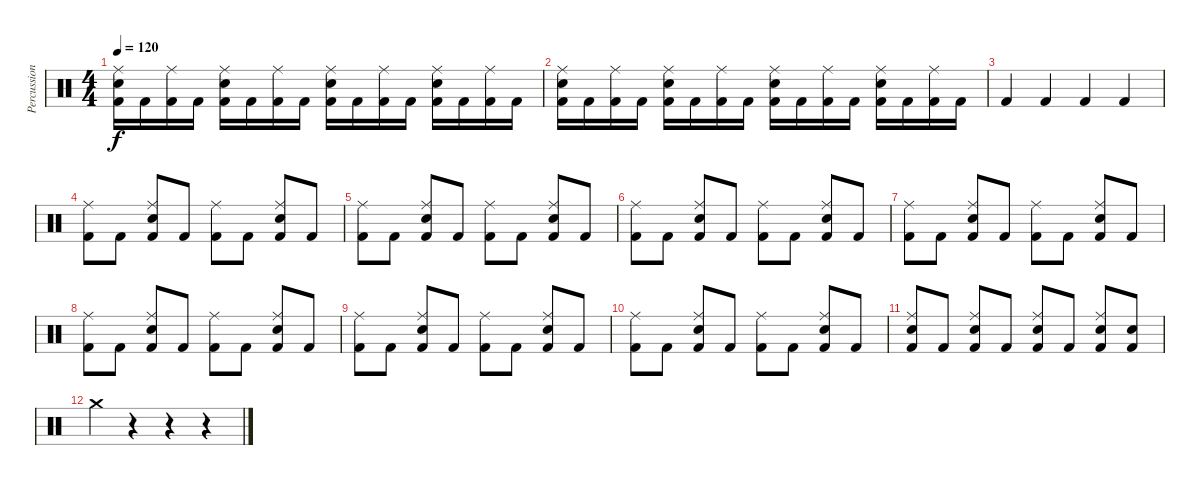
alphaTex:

\track ("Percussions" "Percussion") {instrument percussion}
\staff {score}
\articulation defaults
\ts (4 4)
\tempo 120
\clef neutral
\ks c
("Electric Snare (hit)" "Ride (middle)" "Kick (hit) 2").16{dy f} "Kick (hit) 2".16 ("Ride (middle)" "Kick (hit) 2").16 "Kick (hit) 2".16 ("Electric Snare (hit)" "Ride (middle)" "Kick (hit) 2").16 "Kick (hit) 2".16 ("Ride (middle)" "Kick (hit) 2").16 "Kick (hit) 2".16 ("Electric Snare (hit)" "Ride (middle)" "Kick (hit) 2").16 "Kick (hit) 2".16 ("Ride (middle)" "Kick (hit) 2").16 "Kick (hit) 2".16 ("Electric Snare (hit)" "Ride (middle)" "Kick (hit) 2").16 "Kick (hit) 2".16 ("Ride (middle)" "Kick (hit) 2").16 "Kick (hit) 2".16 |
("Electric Snare (hit)" "Ride (middle)" "Kick (hit) 2").16 "Kick (hit) 2".16 ("Ride (middle)" "Kick (hit) 2").16 "Kick (hit) 2".16 ("Electric Snare (hit)" "Ride (middle)" "Kick (hit) 2").16 "Kick (hit) 2".16 ("Ride (middle)" "Kick (hit) 2").16 "Kick (hit) 2".16 ("Electric Snare (hit)" "Ride (middle)" "Kick (hit) 2").16 "Kick (hit) 2".16 ("Ride (middle)" "Kick (hit) 2").16 "Kick (hit) 2".16 ("Electric Snare (hit)" "Ride (middle)" "Kick (hit) 2").16 "Kick (hit) 2".16 ("Ride (middle)" "Kick (hit) 2").16 "Kick (hit) 2".16 |
"Kick (hit) 2".4 "Kick (hit) 2".4 "Kick (hit) 2".4 "Kick (hit) 2".4 |
("Ride (middle)" "Kick (hit) 2").8 "Kick (hit) 2".8 ("Electric Snare (hit)" "Ride (middle)" "Kick (hit) 2").8 "Kick (hit) 2".8 ("Ride (middle)" "Kick (hit) 2").8 "Kick (hit) 2".8 ("Electric Snare (hit)" "Ride (middle)" "Kick (hit) 2").8 "Kick (hit) 2".8 |
("Ride (middle)" "Kick (hit) 2").8 "Kick (hit) 2".8 ("Electric Snare (hit)" "Ride (middle)" "Kick (hit) 2").8 "Kick (hit) 2".8 ("Ride (middle)" "Kick (hit) 2").8 "Kick (hit) 2".8 ("Electric Snare (hit)" "Ride (middle)" "Kick (hit) 2").8 "Kick (hit) 2".8 |
("Ride (middle)" "Kick (hit) 2").8 "Kick (hit) 2".8 ("Electric Snare (hit)" "Ride (middle)" "Kick (hit) 2").8 "Kick (hit) 2".8 ("Ride (middle)" "Kick (hit) 2").8 "Kick (hit) 2".8 ("Electric Snare (hit)" "Ride (middle)" "Kick (hit) 2").8 "Kick (hit) 2".8 |
("Ride (middle)" "Kick (hit) 2").8 "Kick (hit) 2".8 ("Electric Snare (hit)" "Ride (middle)" "Kick (hit) 2").8 "Kick (hit) 2".8 ("Ride (middle)" "Kick (hit) 2").8 "Kick (hit) 2".8 ("Electric Snare (hit)" "Ride (middle)" "Kick (hit) 2").8 "Kick (hit) 2".8 |
("Ride (middle)" "Kick (hit) 2").8 "Kick (hit) 2".8 ("Electric Snare (hit)" "Ride (middle)" "Kick (hit) 2").8 "Kick (hit) 2".8 ("Ride (middle)" "Kick (hit) 2").8 "Kick (hit) 2".8 ("Electric Snare (hit)" "Ride (middle)" "Kick (hit) 2").8 "Kick (hit) 2".8 |
("Ride (middle)" "Kick (hit) 2").8 "Kick (hit) 2".8 ("Electric Snare (hit)" "Ride (middle)" "Kick (hit) 2").8 "Kick (hit) 2".8 ("Ride (middle)" "Kick (hit) 2").8 "Kick (hit) 2".8 ("Electric Snare (hit)" "Ride (middle)" "Kick (hit) 2").8 "Kick (hit) 2".8 |
("Ride (middle)" "Kick (hit) 2").8 "Kick (hit) 2".8 ("Electric Snare (hit)" "Ride (middle)" "Kick (hit) 2").8 "Kick (hit) 2".8 ("Ride (middle)" "Kick (hit) 2").8 "Kick (hit) 2".8 ("Electric Snare (hit)" "Ride (middle)" "Kick (hit) 2").8 "Kick (hit) 2".8 |
("Electric Snare (hit)" "Ride (middle)" "Kick (hit) 2").8 "Kick (hit) 2".8 ("Electric Snare (hit)" "Ride (middle)" "Kick (hit) 2").8 "Kick (hit) 2".8 ("Electric Snare (hit)" "Ride (middle)" "Kick (hit) 2").8 "Kick (hit) 2".8 ("Electric Snare (hit)" "Ride (middle)" "Kick (hit) 2").8 ("Electric Snare (hit)" "Kick (hit) 2").8 |
"Crash medium (hit)".4 r.4 r.4 r.4
